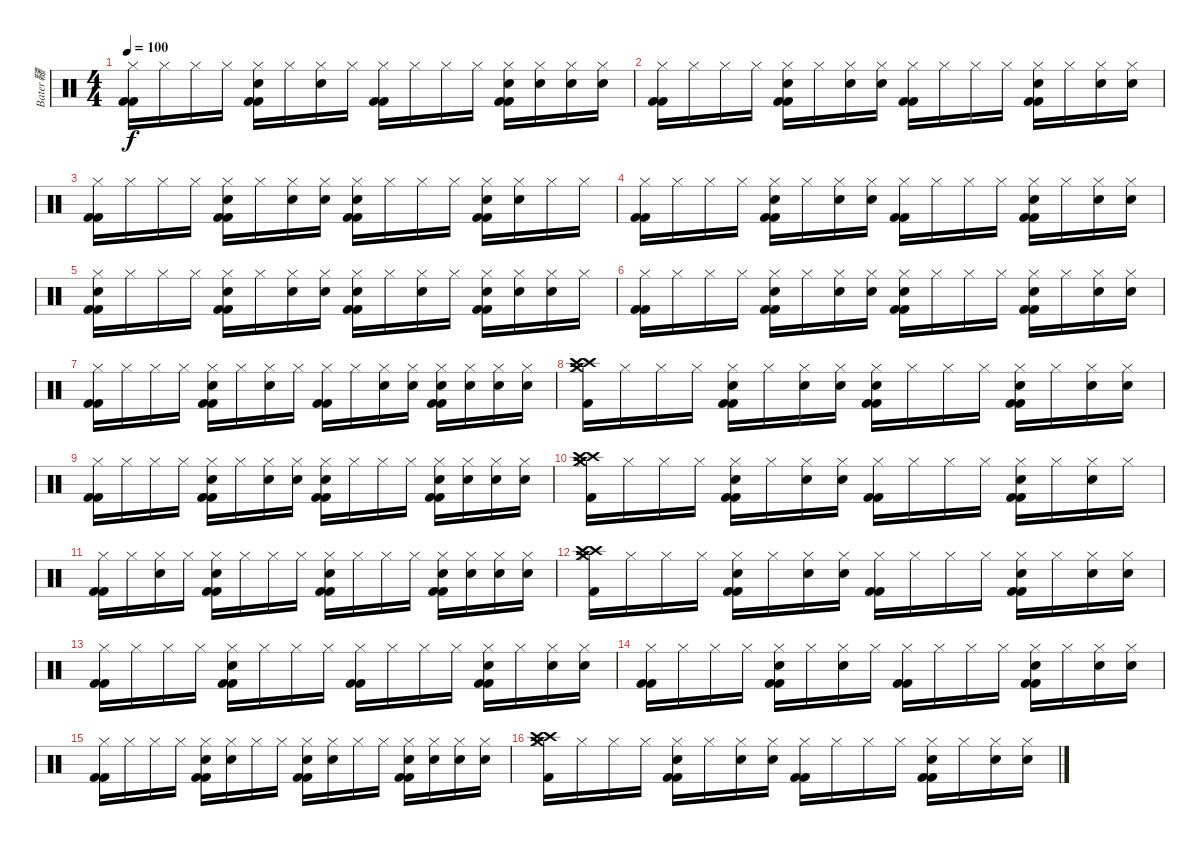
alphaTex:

\track ("Bater韆" "Bater韆") {instrument percussion}
\staff {score}
\articulation defaults
\ts (4 4)
\tempo 100
\clef neutral
\ks c
("Kick (hit) 2" "Kick (hit) 2" "Hi-Hat (closed)").16{dy f} "Hi-Hat (closed)".16 "Hi-Hat (closed)".16 "Hi-Hat (closed)".16 ("Kick (hit) 2" "Kick (hit) 2" "Electric Snare (hit)" "Hi-Hat (closed)").16 "Hi-Hat (closed)".16 ("Electric Snare (hit)" "Hi-Hat (closed)").16 "Hi-Hat (closed)".16 ("Kick (hit) 2" "Kick (hit) 2" "Hi-Hat (closed)").16 "Hi-Hat (closed)".16 "Hi-Hat (closed)".16 "Hi-Hat (closed)".16 ("Kick (hit) 2" "Kick (hit) 2" "Electric Snare (hit)" "Hi-Hat (closed)").16 ("Electric Snare (hit)" "Hi-Hat (closed)").16 ("Electric Snare (hit)" "Hi-Hat (closed)").16 ("Electric Snare (hit)" "Hi-Hat (closed)").16 |
("Kick (hit) 2" "Kick (hit) 2" "Hi-Hat (closed)").16 "Hi-Hat (closed)".16 "Hi-Hat (closed)".16 "Hi-Hat (closed)".16 ("Kick (hit) 2" "Kick (hit) 2" "Electric Snare (hit)" "Hi-Hat (closed)").16 "Hi-Hat (closed)".16 ("Electric Snare (hit)" "Hi-Hat (closed)").16 ("Electric Snare (hit)" "Hi-Hat (closed)").16 ("Kick (hit) 2" "Kick (hit) 2" "Hi-Hat (closed)").16 "Hi-Hat (closed)".16 "Hi-Hat (closed)".16 "Hi-Hat (closed)".16 ("Kick (hit) 2" "Kick (hit) 2" "Electric Snare (hit)" "Hi-Hat (closed)").16 "Hi-Hat (closed)".16 ("Electric Snare (hit)" "Hi-Hat (closed)").16 ("Electric Snare (hit)" "Hi-Hat (closed)").16 |
("Kick (hit) 2" "Kick (hit) 2" "Hi-Hat (closed)").16 "Hi-Hat (closed)".16 "Hi-Hat (closed)".16 "Hi-Hat (closed)".16 ("Kick (hit) 2" "Kick (hit) 2" "Electric Snare (hit)" "Hi-Hat (closed)").16 "Hi-Hat (closed)".16 ("Electric Snare (hit)" "Hi-Hat (closed)").16 ("Electric Snare (hit)" "Hi-Hat (closed)").16 ("Kick (hit) 2" "Kick (hit) 2" "Electric Snare (hit)" "Hi-Hat (closed)").16 "Hi-Hat (closed)".16 "Hi-Hat (closed)".16 "Hi-Hat (closed)".16 ("Kick (hit) 2" "Kick (hit) 2" "Electric Snare (hit)" "Hi-Hat (closed)").16 ("Electric Snare (hit)" "Hi-Hat (closed)").16 "Hi-Hat (closed)".16 "Hi-Hat (closed)".16 |
("Kick (hit) 2" "Kick (hit) 2" "Hi-Hat (closed)").16 "Hi-Hat (closed)".16 "Hi-Hat (closed)".16 "Hi-Hat (closed)".16 ("Kick (hit) 2" "Kick (hit) 2" "Electric Snare (hit)" "Hi-Hat (closed)").16 "Hi-Hat (closed)".16 ("Electric Snare (hit)" "Hi-Hat (closed)").16 ("Electric Snare (hit)" "Hi-Hat (closed)").16 ("Kick (hit) 2" "Kick (hit) 2" "Hi-Hat (closed)").16 "Hi-Hat (closed)".16 "Hi-Hat (closed)".16 "Hi-Hat (closed)".16 ("Kick (hit) 2" "Kick (hit) 2" "Electric Snare (hit)" "Hi-Hat (closed)").16 "Hi-Hat (closed)".16 ("Electric Snare (hit)" "Hi-Hat (closed)").16 ("Electric Snare (hit)" "Hi-Hat (closed)").16 |
("Kick (hit) 2" "Kick (hit) 2" "Electric Snare (hit)" "Hi-Hat (closed)").16 "Hi-Hat (closed)".16 "Hi-Hat (closed)".16 "Hi-Hat (closed)".16 ("Kick (hit) 2" "Kick (hit) 2" "Electric Snare (hit)" "Hi-Hat (closed)").16 "Hi-Hat (closed)".16 ("Electric Snare (hit)" "Hi-Hat (closed)").16 ("Electric Snare (hit)" "Hi-Hat (closed)").16 ("Kick (hit) 2" "Kick (hit) 2" "Electric Snare (hit)" "Hi-Hat (closed)").16 "Hi-Hat (closed)".16 ("Electric Snare (hit)" "Hi-Hat (closed)").16 "Hi-Hat (closed)".16 ("Kick (hit) 2" "Kick (hit) 2" "Electric Snare (hit)" "Hi-Hat (closed)").16 ("Electric Snare (hit)" "Hi-Hat (closed)").16 ("Electric Snare (hit)" "Hi-Hat (closed)").16 "Hi-Hat (closed)".16 |
("Kick (hit) 2" "Kick (hit) 2" "Hi-Hat (closed)").16 "Hi-Hat (closed)".16 "Hi-Hat (closed)".16 "Hi-Hat (closed)".16 ("Kick (hit) 2" "Kick (hit) 2" "Electric Snare (hit)" "Hi-Hat (closed)").16 "Hi-Hat (closed)".16 ("Electric Snare (hit)" "Hi-Hat (closed)").16 ("Electric Snare (hit)" "Hi-Hat (closed)").16 ("Kick (hit) 2" "Kick (hit) 2" "Electric Snare (hit)" "Hi-Hat (closed)").16 "Hi-Hat (closed)".16 "Hi-Hat (closed)".16 "Hi-Hat (closed)".16 ("Kick (hit) 2" "Kick (hit) 2" "Electric Snare (hit)" "Hi-Hat (closed)").16 "Hi-Hat (closed)".16 ("Electric Snare (hit)" "Hi-Hat (closed)").16 ("Electric Snare (hit)" "Hi-Hat (closed)").16 |
("Kick (hit) 2" "Kick (hit) 2" "Hi-Hat (closed)").16 "Hi-Hat (closed)".16 "Hi-Hat (closed)".16 "Hi-Hat (closed)".16 ("Kick (hit) 2" "Kick (hit) 2" "Electric Snare (hit)" "Hi-Hat (closed)").16 "Hi-Hat (closed)".16 ("Electric Snare (hit)" "Hi-Hat (closed)").16 "Hi-Hat (closed)".16 ("Kick (hit) 2" "Kick (hit) 2" "Hi-Hat (closed)").16 "Hi-Hat (closed)".16 ("Electric Snare (hit)" "Hi-Hat (closed)").16 ("Electric Snare (hit)" "Hi-Hat (closed)").16 ("Kick (hit) 2" "Kick (hit) 2" "Electric Snare (hit)" "Hi-Hat (closed)").16 ("Electric Snare (hit)" "Hi-Hat (closed)").16 ("Electric Snare (hit)" "Hi-Hat (closed)").16 ("Electric Snare (hit)" "Hi-Hat (closed)").16 |
("Crash high (hit)" "Crash high (hit)" "Crash medium (hit)" "Kick (hit) 2" "Hi-Hat (closed)").16 "Hi-Hat (closed)".16 "Hi-Hat (closed)".16 "Hi-Hat (closed)".16 ("Kick (hit) 2" "Kick (hit) 2" "Electric Snare (hit)" "Hi-Hat (closed)").16 "Hi-Hat (closed)".16 ("Electric Snare (hit)" "Hi-Hat (closed)").16 ("Electric Snare (hit)" "Hi-Hat (closed)").16 ("Kick (hit) 2" "Kick (hit) 2" "Electric Snare (hit)" "Hi-Hat (closed)").16 "Hi-Hat (closed)".16 "Hi-Hat (closed)".16 "Hi-Hat (closed)".16 ("Kick (hit) 2" "Kick (hit) 2" "Electric Snare (hit)" "Hi-Hat (closed)").16 "Hi-Hat (closed)".16 ("Electric Snare (hit)" "Hi-Hat (closed)").16 ("Electric Snare (hit)" "Hi-Hat (closed)").16 |
("Kick (hit) 2" "Kick (hit) 2" "Hi-Hat (closed)").16 "Hi-Hat (closed)".16 "Hi-Hat (closed)".16 "Hi-Hat (closed)".16 ("Kick (hit) 2" "Kick (hit) 2" "Electric Snare (hit)" "Hi-Hat (closed)").16 "Hi-Hat (closed)".16 ("Electric Snare (hit)" "Hi-Hat (closed)").16 ("Electric Snare (hit)" "Hi-Hat (closed)").16 ("Kick (hit) 2" "Kick (hit) 2" "Electric Snare (hit)" "Hi-Hat (closed)").16 "Hi-Hat (closed)".16 "Hi-Hat (closed)".16 "Hi-Hat (closed)".16 ("Kick (hit) 2" "Kick (hit) 2" "Electric Snare (hit)" "Hi-Hat (closed)").16 ("Electric Snare (hit)" "Hi-Hat (closed)").16 ("Electric Snare (hit)" "Hi-Hat (closed)").16 ("Electric Snare (hit)" "Hi-Hat (closed)").16 |
("Crash high (hit)" "Crash high (hit)" "Crash medium (hit)" "Kick (hit) 2" "Hi-Hat (closed)").16 "Hi-Hat (closed)".16 "Hi-Hat (closed)".16 "Hi-Hat (closed)".16 ("Kick (hit) 2" "Kick (hit) 2" "Electric Snare (hit)" "Hi-Hat (closed)").16 "Hi-Hat (closed)".16 ("Electric Snare (hit)" "Hi-Hat (closed)").16 ("Electric Snare (hit)" "Hi-Hat (closed)").16 ("Kick (hit) 2" "Kick (hit) 2" "Hi-Hat (closed)").16 "Hi-Hat (closed)".16 "Hi-Hat (closed)".16 "Hi-Hat (closed)".16 ("Kick (hit) 2" "Kick (hit) 2" "Electric Snare (hit)" "Hi-Hat (closed)").16 "Hi-Hat (closed)".16 ("Electric Snare (hit)" "Hi-Hat (closed)").16 "Hi-Hat (closed)".16 |
("Kick (hit) 2" "Kick (hit) 2" "Hi-Hat (closed)").16 "Hi-Hat (closed)".16 ("Electric Snare (hit)" "Hi-Hat (closed)").16 "Hi-Hat (closed)".16 ("Kick (hit) 2" "Kick (hit) 2" "Electric Snare (hit)" "Hi-Hat (closed)").16 "Hi-Hat (closed)".16 "Hi-Hat (closed)".16 "Hi-Hat (closed)".16 ("Kick (hit) 2" "Kick (hit) 2" "Electric Snare (hit)" "Hi-Hat (closed)").16 "Hi-Hat (closed)".16 "Hi-Hat (closed)".16 "Hi-Hat (closed)".16 ("Kick (hit) 2" "Kick (hit) 2" "Electric Snare (hit)" "Hi-Hat (closed)").16 ("Electric Snare (hit)" "Hi-Hat (closed)").16 ("Electric Snare (hit)" "Hi-Hat (closed)").16 ("Electric Snare (hit)" "Hi-Hat (closed)").16 |
("Crash high (hit)" "Crash high (hit)" "Crash medium (hit)" "Kick (hit) 2" "Hi-Hat (closed)").16 "Hi-Hat (closed)".16 "Hi-Hat (closed)".16 "Hi-Hat (closed)".16 ("Kick (hit) 2" "Kick (hit) 2" "Electric Snare (hit)" "Hi-Hat (closed)").16 "Hi-Hat (closed)".16 ("Electric Snare (hit)" "Hi-Hat (closed)").16 ("Electric Snare (hit)" "Hi-Hat (closed)").16 ("Kick (hit) 2" "Kick (hit) 2" "Hi-Hat (closed)").16 "Hi-Hat (closed)".16 "Hi-Hat (closed)".16 "Hi-Hat (closed)".16 ("Kick (hit) 2" "Kick (hit) 2" "Electric Snare (hit)" "Hi-Hat (closed)").16 "Hi-Hat (closed)".16 ("Electric Snare (hit)" "Hi-Hat (closed)").16 ("Electric Snare (hit)" "Hi-Hat (closed)").16 |
("Kick (hit) 2" "Kick (hit) 2" "Hi-Hat (closed)").16 "Hi-Hat (closed)".16 "Hi-Hat (closed)".16 "Hi-Hat (closed)".16 ("Kick (hit) 2" "Kick (hit) 2" "Electric Snare (hit)" "Hi-Hat (closed)").16 "Hi-Hat (closed)".16 "Hi-Hat (closed)".16 "Hi-Hat (closed)".16 ("Kick (hit) 2" "Kick (hit) 2" "Hi-Hat (closed)").16 "Hi-Hat (closed)".16 "Hi-Hat (closed)".16 "Hi-Hat (closed)".16 ("Kick (hit) 2" "Kick (hit) 2" "Electric Snare (hit)" "Hi-Hat (closed)").16 "Hi-Hat (closed)".16 ("Electric Snare (hit)" "Hi-Hat (closed)").16 ("Electric Snare (hit)" "Hi-Hat (closed)").16 |
("Kick (hit) 2" "Kick (hit) 2" "Hi-Hat (closed)").16 "Hi-Hat (closed)".16 "Hi-Hat (closed)".16 "Hi-Hat (closed)".16 ("Kick (hit) 2" "Kick (hit) 2" "Electric Snare (hit)" "Hi-Hat (closed)").16 "Hi-Hat (closed)".16 ("Electric Snare (hit)" "Hi-Hat (closed)").16 "Hi-Hat (closed)".16 ("Kick (hit) 2" "Kick (hit) 2" "Hi-Hat (closed)").16 "Hi-Hat (closed)".16 "Hi-Hat (closed)".16 "Hi-Hat (closed)".16 ("Kick (hit) 2" "Kick (hit) 2" "Electric Snare (hit)" "Hi-Hat (closed)").16 "Hi-Hat (closed)".16 ("Electric Snare (hit)" "Hi-Hat (closed)").16 ("Electric Snare (hit)" "Hi-Hat (closed)").16 |
("Kick (hit) 2" "Kick (hit) 2" "Hi-Hat (closed)").16 "Hi-Hat (closed)".16 "Hi-Hat (closed)".16 "Hi-Hat (closed)".16 ("Kick (hit) 2" "Kick (hit) 2" "Electric Snare (hit)" "Hi-Hat (closed)").16 ("Electric Snare (hit)" "Hi-Hat (closed)").16 "Hi-Hat (closed)".16 "Hi-Hat (closed)".16 ("Kick (hit) 2" "Kick (hit) 2" "Electric Snare (hit)" "Hi-Hat (closed)").16 ("Electric Snare (hit)" "Hi-Hat (closed)").16 "Hi-Hat (closed)".16 "Hi-Hat (closed)".16 ("Kick (hit) 2" "Kick (hit) 2" "Electric Snare (hit)" "Hi-Hat (closed)").16 ("Electric Snare (hit)" "Hi-Hat (closed)").16 ("Electric Snare (hit)" "Hi-Hat (closed)").16 ("Electric Snare (hit)" "Hi-Hat (closed)").16 |
("Crash high (hit)" "Crash high (hit)" "Crash medium (hit)" "Kick (hit) 2" "Hi-Hat (closed)").16 "Hi-Hat (closed)".16 "Hi-Hat (closed)".16 "Hi-Hat (closed)".16 ("Kick (hit) 2" "Kick (hit) 2" "Electric Snare (hit)" "Hi-Hat (closed)").16 "Hi-Hat (closed)".16 ("Electric Snare (hit)" "Hi-Hat (closed)").16 ("Electric Snare (hit)" "Hi-Hat (closed)").16 ("Kick (hit) 2" "Kick (hit) 2" "Hi-Hat (closed)").16 "Hi-Hat (closed)".16 "Hi-Hat (closed)".16 "Hi-Hat (closed)".16 ("Kick (hit) 2" "Kick (hit) 2" "Electric Snare (hit)" "Hi-Hat (closed)").16 "Hi-Hat (closed)".16 ("Electric Snare (hit)" "Hi-Hat (closed)").16 ("Electric Snare (hit)" "Hi-Hat (closed)").16
